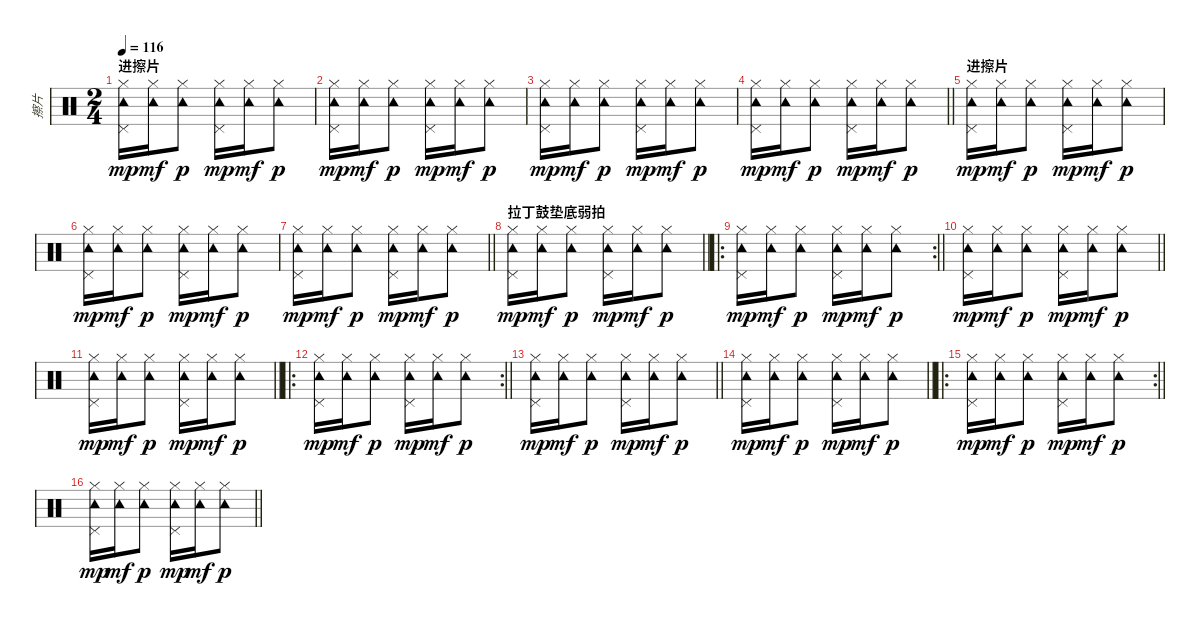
\track ("擦片" "擦片") {instrument percussion}
\staff {score}
\articulation defaults
\ts (2 4)
\section ("" "进擦片")
\tempo 116
\clef neutral
\ks c
("Hi-Hat (closed)" "Tambourine (hit)" "Pedal Hi-Hat (hit)").16{dy mp} ("Hi-Hat (closed)" "Tambourine (hit)").16{dy mf} ("Hi-Hat (closed)" "Tambourine (hit)").8{dy p} ("Hi-Hat (closed)" "Tambourine (hit)" "Pedal Hi-Hat (hit)").16{dy mp} ("Hi-Hat (closed)" "Tambourine (hit)").16{dy mf} ("Hi-Hat (closed)" "Tambourine (hit)").8{dy p} |
("Hi-Hat (closed)" "Tambourine (hit)" "Pedal Hi-Hat (hit)").16{dy mp} ("Hi-Hat (closed)" "Tambourine (hit)").16{dy mf} ("Hi-Hat (closed)" "Tambourine (hit)").8{dy p} ("Hi-Hat (closed)" "Tambourine (hit)" "Pedal Hi-Hat (hit)").16{dy mp} ("Hi-Hat (closed)" "Tambourine (hit)").16{dy mf} ("Hi-Hat (closed)" "Tambourine (hit)").8{dy p} |
("Hi-Hat (closed)" "Tambourine (hit)" "Pedal Hi-Hat (hit)").16{dy mp} ("Hi-Hat (closed)" "Tambourine (hit)").16{dy mf} ("Hi-Hat (closed)" "Tambourine (hit)").8{dy p} ("Hi-Hat (closed)" "Tambourine (hit)" "Pedal Hi-Hat (hit)").16{dy mp} ("Hi-Hat (closed)" "Tambourine (hit)").16{dy mf} ("Hi-Hat (closed)" "Tambourine (hit)").8{dy p} |
\barLineRight lightlight
("Hi-Hat (closed)" "Tambourine (hit)" "Pedal Hi-Hat (hit)").16{dy mp} ("Hi-Hat (closed)" "Tambourine (hit)").16{dy mf} ("Hi-Hat (closed)" "Tambourine (hit)").8{dy p} ("Hi-Hat (closed)" "Tambourine (hit)" "Pedal Hi-Hat (hit)").16{dy mp} ("Hi-Hat (closed)" "Tambourine (hit)").16{dy mf} ("Hi-Hat (closed)" "Tambourine (hit)").8{dy p} |
\section ("" "进擦片")
("Hi-Hat (closed)" "Tambourine (hit)" "Pedal Hi-Hat (hit)").16{dy mp} ("Hi-Hat (closed)" "Tambourine (hit)").16{dy mf} ("Hi-Hat (closed)" "Tambourine (hit)").8{dy p} ("Hi-Hat (closed)" "Tambourine (hit)" "Pedal Hi-Hat (hit)").16{dy mp} ("Hi-Hat (closed)" "Tambourine (hit)").16{dy mf} ("Hi-Hat (closed)" "Tambourine (hit)").8{dy p} |
("Hi-Hat (closed)" "Tambourine (hit)" "Pedal Hi-Hat (hit)").16{dy mp} ("Hi-Hat (closed)" "Tambourine (hit)").16{dy mf} ("Hi-Hat (closed)" "Tambourine (hit)").8{dy p} ("Hi-Hat (closed)" "Tambourine (hit)" "Pedal Hi-Hat (hit)").16{dy mp} ("Hi-Hat (closed)" "Tambourine (hit)").16{dy mf} ("Hi-Hat (closed)" "Tambourine (hit)").8{dy p} |
\barLineRight lightlight
("Hi-Hat (closed)" "Tambourine (hit)" "Pedal Hi-Hat (hit)").16{dy mp} ("Hi-Hat (closed)" "Tambourine (hit)").16{dy mf} ("Hi-Hat (closed)" "Tambourine (hit)").8{dy p} ("Hi-Hat (closed)" "Tambourine (hit)" "Pedal Hi-Hat (hit)").16{dy mp} ("Hi-Hat (closed)" "Tambourine (hit)").16{dy mf} ("Hi-Hat (closed)" "Tambourine (hit)").8{dy p} |
\section ("" "拉丁鼓垫底弱拍")
\barLineRight lightlight
("Hi-Hat (closed)" "Tambourine (hit)" "Pedal Hi-Hat (hit)").16{dy mp} ("Hi-Hat (closed)" "Tambourine (hit)").16{dy mf} ("Hi-Hat (closed)" "Tambourine (hit)").8{dy p} ("Hi-Hat (closed)" "Tambourine (hit)" "Pedal Hi-Hat (hit)").16{dy mp} ("Hi-Hat (closed)" "Tambourine (hit)").16{dy mf} ("Hi-Hat (closed)" "Tambourine (hit)").8{dy p} |
\ro
\rc 2
\barLineRight lightlight
("Hi-Hat (closed)" "Tambourine (hit)" "Pedal Hi-Hat (hit)").16{dy mp} ("Hi-Hat (closed)" "Tambourine (hit)").16{dy mf} ("Hi-Hat (closed)" "Tambourine (hit)").8{dy p} ("Hi-Hat (closed)" "Tambourine (hit)" "Pedal Hi-Hat (hit)").16{dy mp} ("Hi-Hat (closed)" "Tambourine (hit)").16{dy mf} ("Hi-Hat (closed)" "Tambourine (hit)").8{dy p} |
\barLineRight lightlight
("Hi-Hat (closed)" "Tambourine (hit)" "Pedal Hi-Hat (hit)").16{dy mp} ("Hi-Hat (closed)" "Tambourine (hit)").16{dy mf} ("Hi-Hat (closed)" "Tambourine (hit)").8{dy p} ("Hi-Hat (closed)" "Tambourine (hit)" "Pedal Hi-Hat (hit)").16{dy mp} ("Hi-Hat (closed)" "Tambourine (hit)").16{dy mf} ("Hi-Hat (closed)" "Tambourine (hit)").8{dy p} |
\barLineRight lightlight
("Hi-Hat (closed)" "Tambourine (hit)" "Pedal Hi-Hat (hit)").16{dy mp} ("Hi-Hat (closed)" "Tambourine (hit)").16{dy mf} ("Hi-Hat (closed)" "Tambourine (hit)").8{dy p} ("Hi-Hat (closed)" "Tambourine (hit)" "Pedal Hi-Hat (hit)").16{dy mp} ("Hi-Hat (closed)" "Tambourine (hit)").16{dy mf} ("Hi-Hat (closed)" "Tambourine (hit)").8{dy p} |
\ro
\rc 2
\barLineRight lightlight
("Hi-Hat (closed)" "Tambourine (hit)" "Pedal Hi-Hat (hit)").16{dy mp} ("Hi-Hat (closed)" "Tambourine (hit)").16{dy mf} ("Hi-Hat (closed)" "Tambourine (hit)").8{dy p} ("Hi-Hat (closed)" "Tambourine (hit)" "Pedal Hi-Hat (hit)").16{dy mp} ("Hi-Hat (closed)" "Tambourine (hit)").16{dy mf} ("Hi-Hat (closed)" "Tambourine (hit)").8{dy p} |
\barLineRight lightlight
("Hi-Hat (closed)" "Tambourine (hit)" "Pedal Hi-Hat (hit)").16{dy mp} ("Hi-Hat (closed)" "Tambourine (hit)").16{dy mf} ("Hi-Hat (closed)" "Tambourine (hit)").8{dy p} ("Hi-Hat (closed)" "Tambourine (hit)" "Pedal Hi-Hat (hit)").16{dy mp} ("Hi-Hat (closed)" "Tambourine (hit)").16{dy mf} ("Hi-Hat (closed)" "Tambourine (hit)").8{dy p} |
\barLineRight lightlight
("Hi-Hat (closed)" "Tambourine (hit)" "Pedal Hi-Hat (hit)").16{dy mp} ("Hi-Hat (closed)" "Tambourine (hit)").16{dy mf} ("Hi-Hat (closed)" "Tambourine (hit)").8{dy p} ("Hi-Hat (closed)" "Tambourine (hit)" "Pedal Hi-Hat (hit)").16{dy mp} ("Hi-Hat (closed)" "Tambourine (hit)").16{dy mf} ("Hi-Hat (closed)" "Tambourine (hit)").8{dy p} |
\ro
\rc 2
\barLineRight lightlight
("Hi-Hat (closed)" "Tambourine (hit)" "Pedal Hi-Hat (hit)").16{dy mp} ("Hi-Hat (closed)" "Tambourine (hit)").16{dy mf} ("Hi-Hat (closed)" "Tambourine (hit)").8{dy p} ("Hi-Hat (closed)" "Tambourine (hit)" "Pedal Hi-Hat (hit)").16{dy mp} ("Hi-Hat (closed)" "Tambourine (hit)").16{dy mf} ("Hi-Hat (closed)" "Tambourine (hit)").8{dy p} |
\barLineRight lightlight
("Hi-Hat (closed)" "Tambourine (hit)" "Pedal Hi-Hat (hit)").16{dy mp} ("Hi-Hat (closed)" "Tambourine (hit)").16{dy mf} ("Hi-Hat (closed)" "Tambourine (hit)").8{dy p} ("Hi-Hat (closed)" "Tambourine (hit)" "Pedal Hi-Hat (hit)").16{dy mp} ("Hi-Hat (closed)" "Tambourine (hit)").16{dy mf} ("Hi-Hat (closed)" "Tambourine (hit)").8{dy p}
